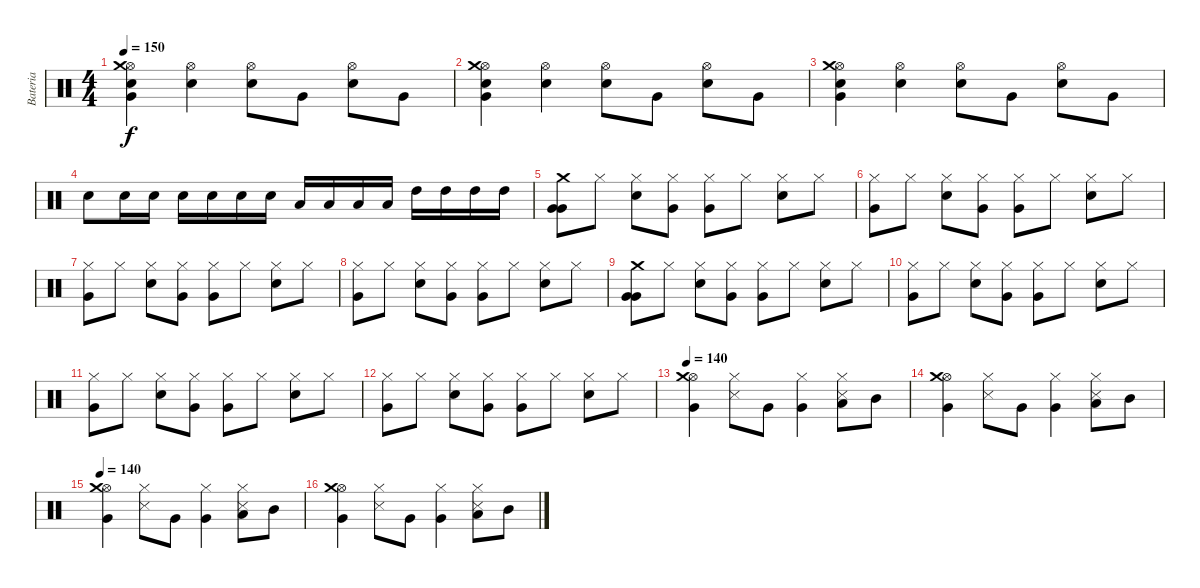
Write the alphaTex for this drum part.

\track ("Bateria" "Bateria") {instrument percussion}
\staff {score}
\articulation defaults
\ts (4 4)
\tempo 150
\clef neutral
\ks c
("Hi-Hat (open)" "Very Low Tom (hit)" "Electric Snare (hit)" "Crash medium (hit)").4{dy f} ("Hi-Hat (open)" "Electric Snare (hit)").4 ("Hi-Hat (open)" "Electric Snare (hit)").8 "Very Low Tom (hit)".8 ("Hi-Hat (open)" "Electric Snare (hit)").8 "Very Low Tom (hit)".8 |
("Hi-Hat (open)" "Very Low Tom (hit)" "Electric Snare (hit)" "Crash medium (hit)").4 ("Hi-Hat (open)" "Electric Snare (hit)").4 ("Hi-Hat (open)" "Electric Snare (hit)").8 "Very Low Tom (hit)".8 ("Hi-Hat (open)" "Electric Snare (hit)").8 "Very Low Tom (hit)".8 |
("Hi-Hat (open)" "Very Low Tom (hit)" "Electric Snare (hit)" "Crash medium (hit)").4 ("Hi-Hat (open)" "Electric Snare (hit)").4 ("Hi-Hat (open)" "Electric Snare (hit)").8 "Very Low Tom (hit)".8 ("Hi-Hat (open)" "Electric Snare (hit)").8 "Very Low Tom (hit)".8 |
"Electric Snare (hit)".8 "Electric Snare (hit)".16 "Electric Snare (hit)".16 "Electric Snare (hit)".16 "Electric Snare (hit)".16 "Electric Snare (hit)".16 "Electric Snare (hit)".16 "Low Tom (hit)".16 "Low Tom (hit)".16 "Low Tom (hit)".16 "Low Tom (hit)".16 "High Tom (hit)".16 "High Tom (hit)".16 "High Tom (hit)".16 "High Tom (hit)".16 |
("Very Low Tom (hit)" "Very Low Tom (hit)" "Crash medium (hit)").8 "Hi-Hat (closed)".8 ("Hi-Hat (closed)" "Electric Snare (hit)").8 ("Hi-Hat (closed)" "Very Low Tom (hit)").8 ("Hi-Hat (closed)" "Very Low Tom (hit)").8 "Hi-Hat (closed)".8 ("Hi-Hat (closed)" "Electric Snare (hit)").8 "Hi-Hat (closed)".8 |
("Hi-Hat (closed)" "Very Low Tom (hit)").8 "Hi-Hat (closed)".8 ("Hi-Hat (closed)" "Electric Snare (hit)").8 ("Hi-Hat (closed)" "Very Low Tom (hit)").8 ("Hi-Hat (closed)" "Very Low Tom (hit)").8 "Hi-Hat (closed)".8 ("Hi-Hat (closed)" "Electric Snare (hit)").8 "Hi-Hat (closed)".8 |
("Hi-Hat (closed)" "Very Low Tom (hit)").8 "Hi-Hat (closed)".8 ("Hi-Hat (closed)" "Electric Snare (hit)").8 ("Hi-Hat (closed)" "Very Low Tom (hit)").8 ("Hi-Hat (closed)" "Very Low Tom (hit)").8 "Hi-Hat (closed)".8 ("Hi-Hat (closed)" "Electric Snare (hit)").8 "Hi-Hat (closed)".8 |
("Hi-Hat (closed)" "Very Low Tom (hit)").8 "Hi-Hat (closed)".8 ("Hi-Hat (closed)" "Electric Snare (hit)").8 ("Hi-Hat (closed)" "Very Low Tom (hit)").8 ("Hi-Hat (closed)" "Very Low Tom (hit)").8 "Hi-Hat (closed)".8 ("Hi-Hat (closed)" "Electric Snare (hit)").8 "Hi-Hat (closed)".8 |
("Very Low Tom (hit)" "Very Low Tom (hit)" "Crash medium (hit)").8 "Hi-Hat (closed)".8 ("Hi-Hat (closed)" "Electric Snare (hit)").8 ("Hi-Hat (closed)" "Very Low Tom (hit)").8 ("Hi-Hat (closed)" "Very Low Tom (hit)").8 "Hi-Hat (closed)".8 ("Hi-Hat (closed)" "Electric Snare (hit)").8 "Hi-Hat (closed)".8 |
("Hi-Hat (closed)" "Very Low Tom (hit)").8 "Hi-Hat (closed)".8 ("Hi-Hat (closed)" "Electric Snare (hit)").8 ("Hi-Hat (closed)" "Very Low Tom (hit)").8 ("Hi-Hat (closed)" "Very Low Tom (hit)").8 "Hi-Hat (closed)".8 ("Hi-Hat (closed)" "Electric Snare (hit)").8 "Hi-Hat (closed)".8 |
("Hi-Hat (closed)" "Very Low Tom (hit)").8 "Hi-Hat (closed)".8 ("Hi-Hat (closed)" "Electric Snare (hit)").8 ("Hi-Hat (closed)" "Very Low Tom (hit)").8 ("Hi-Hat (closed)" "Very Low Tom (hit)").8 "Hi-Hat (closed)".8 ("Hi-Hat (closed)" "Electric Snare (hit)").8 "Hi-Hat (closed)".8 |
("Hi-Hat (closed)" "Very Low Tom (hit)").8 "Hi-Hat (closed)".8 ("Hi-Hat (closed)" "Electric Snare (hit)").8 ("Hi-Hat (closed)" "Very Low Tom (hit)").8 ("Hi-Hat (closed)" "Very Low Tom (hit)").8 "Hi-Hat (closed)".8 ("Hi-Hat (closed)" "Electric Snare (hit)").8 "Hi-Hat (closed)".8 |
\tempo 140
("Hi-Hat (open)" "Very Low Tom (hit)" "Crash medium (hit)").4 ("Hi-Hat (closed)" "Snare (side stick) 3").8 "Very Low Tom (hit)".8 ("Hi-Hat (closed)" "Very Low Tom (hit)").4 ("Hi-Hat (closed)" "Snare (side stick) 3" "Low Tom (hit)").8 "Mid Tom (hit)".8 |
("Hi-Hat (open)" "Very Low Tom (hit)" "Crash medium (hit)").4 ("Hi-Hat (closed)" "Snare (side stick) 3").8 "Very Low Tom (hit)".8 ("Hi-Hat (closed)" "Very Low Tom (hit)").4 ("Hi-Hat (closed)" "Snare (side stick) 3" "Low Tom (hit)").8 "Mid Tom (hit)".8 |
\tempo 140
("Hi-Hat (open)" "Very Low Tom (hit)" "Crash medium (hit)").4 ("Hi-Hat (closed)" "Snare (side stick) 3").8 "Very Low Tom (hit)".8 ("Hi-Hat (closed)" "Very Low Tom (hit)").4 ("Hi-Hat (closed)" "Snare (side stick) 3" "Low Tom (hit)").8 "Mid Tom (hit)".8 |
("Hi-Hat (open)" "Very Low Tom (hit)" "Crash medium (hit)").4 ("Hi-Hat (closed)" "Snare (side stick) 3").8 "Very Low Tom (hit)".8 ("Hi-Hat (closed)" "Very Low Tom (hit)").4 ("Hi-Hat (closed)" "Snare (side stick) 3" "Low Tom (hit)").8 "Mid Tom (hit)".8
